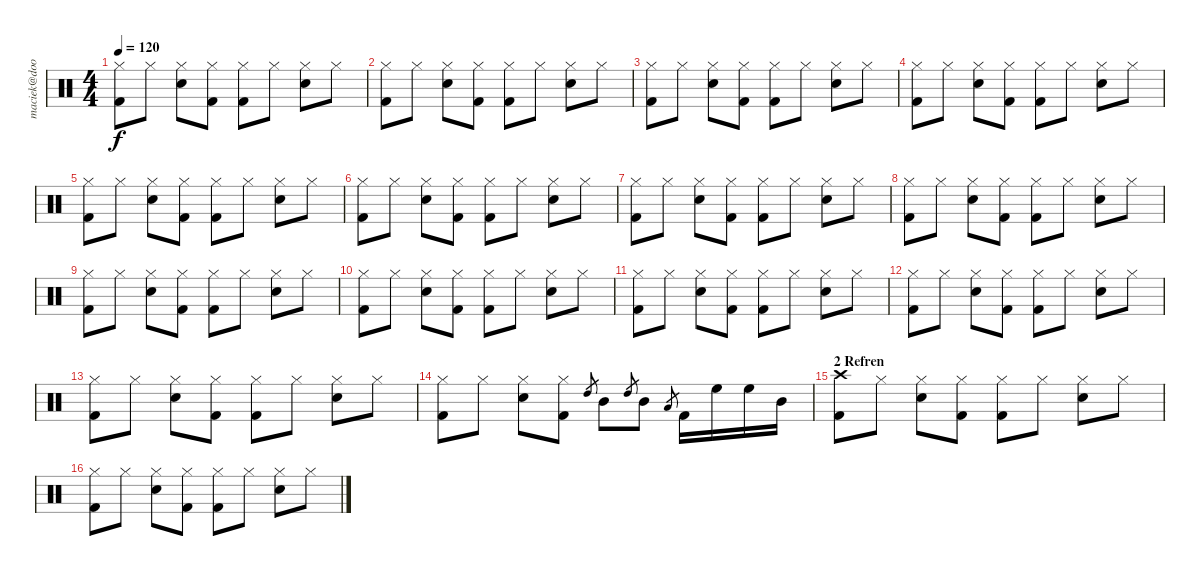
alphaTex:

\track ("maciek@doorpol.com" "maciek@doo") {instrument percussion}
\staff {score}
\articulation defaults
\ts (4 4)
\tempo 120
\clef neutral
\ks c
("Hi-Hat (closed)" "Kick (hit) 2").8{dy f} "Hi-Hat (closed)".8 ("Hi-Hat (closed)" "Snare (hit) 2").8 ("Hi-Hat (closed)" "Kick (hit) 2").8 ("Hi-Hat (closed)" "Kick (hit) 2").8 "Hi-Hat (closed)".8 ("Hi-Hat (closed)" "Snare (hit) 2").8 "Hi-Hat (closed)".8 |
("Hi-Hat (closed)" "Kick (hit) 2").8 "Hi-Hat (closed)".8 ("Hi-Hat (closed)" "Snare (hit) 2").8 ("Hi-Hat (closed)" "Kick (hit) 2").8 ("Hi-Hat (closed)" "Kick (hit) 2").8 "Hi-Hat (closed)".8 ("Hi-Hat (closed)" "Snare (hit) 2").8 "Hi-Hat (closed)".8 |
("Hi-Hat (closed)" "Kick (hit) 2").8 "Hi-Hat (closed)".8 ("Hi-Hat (closed)" "Snare (hit) 2").8 ("Hi-Hat (closed)" "Kick (hit) 2").8 ("Hi-Hat (closed)" "Kick (hit) 2").8 "Hi-Hat (closed)".8 ("Hi-Hat (closed)" "Snare (hit) 2").8 "Hi-Hat (closed)".8 |
("Hi-Hat (closed)" "Kick (hit) 2").8 "Hi-Hat (closed)".8 ("Hi-Hat (closed)" "Snare (hit) 2").8 ("Hi-Hat (closed)" "Kick (hit) 2").8 ("Hi-Hat (closed)" "Kick (hit) 2").8 "Hi-Hat (closed)".8 ("Hi-Hat (closed)" "Snare (hit) 2").8 "Hi-Hat (closed)".8 |
("Hi-Hat (closed)" "Kick (hit) 2").8 "Hi-Hat (closed)".8 ("Hi-Hat (closed)" "Snare (hit) 2").8 ("Hi-Hat (closed)" "Kick (hit) 2").8 ("Hi-Hat (closed)" "Kick (hit) 2").8 "Hi-Hat (closed)".8 ("Hi-Hat (closed)" "Snare (hit) 2").8 "Hi-Hat (closed)".8 |
("Hi-Hat (closed)" "Kick (hit) 2").8 "Hi-Hat (closed)".8 ("Hi-Hat (closed)" "Snare (hit) 2").8 ("Hi-Hat (closed)" "Kick (hit) 2").8 ("Hi-Hat (closed)" "Kick (hit) 2").8 "Hi-Hat (closed)".8 ("Hi-Hat (closed)" "Snare (hit) 2").8 "Hi-Hat (closed)".8 |
("Hi-Hat (closed)" "Kick (hit) 2").8 "Hi-Hat (closed)".8 ("Hi-Hat (closed)" "Snare (hit) 2").8 ("Hi-Hat (closed)" "Kick (hit) 2").8 ("Hi-Hat (closed)" "Kick (hit) 2").8 "Hi-Hat (closed)".8 ("Hi-Hat (closed)" "Snare (hit) 2").8 "Hi-Hat (closed)".8 |
("Hi-Hat (closed)" "Kick (hit) 2").8 "Hi-Hat (closed)".8 ("Hi-Hat (closed)" "Snare (hit) 2").8 ("Hi-Hat (closed)" "Kick (hit) 2").8 ("Hi-Hat (closed)" "Kick (hit) 2").8 "Hi-Hat (closed)".8 ("Hi-Hat (closed)" "Snare (hit) 2").8 "Hi-Hat (closed)".8 |
("Hi-Hat (closed)" "Kick (hit) 2").8 "Hi-Hat (closed)".8 ("Hi-Hat (closed)" "Snare (hit) 2").8 ("Hi-Hat (closed)" "Kick (hit) 2").8 ("Hi-Hat (closed)" "Kick (hit) 2").8 "Hi-Hat (closed)".8 ("Hi-Hat (closed)" "Snare (hit) 2").8 "Hi-Hat (closed)".8 |
("Hi-Hat (closed)" "Kick (hit) 2").8 "Hi-Hat (closed)".8 ("Hi-Hat (closed)" "Snare (hit) 2").8 ("Hi-Hat (closed)" "Kick (hit) 2").8 ("Hi-Hat (closed)" "Kick (hit) 2").8 "Hi-Hat (closed)".8 ("Hi-Hat (closed)" "Snare (hit) 2").8 "Hi-Hat (closed)".8 |
("Hi-Hat (closed)" "Kick (hit) 2").8 "Hi-Hat (closed)".8 ("Hi-Hat (closed)" "Snare (hit) 2").8 ("Hi-Hat (closed)" "Kick (hit) 2").8 ("Hi-Hat (closed)" "Kick (hit) 2").8 "Hi-Hat (closed)".8 ("Hi-Hat (closed)" "Snare (hit) 2").8 "Hi-Hat (closed)".8 |
("Hi-Hat (closed)" "Kick (hit) 2").8 "Hi-Hat (closed)".8 ("Hi-Hat (closed)" "Snare (hit) 2").8 ("Hi-Hat (closed)" "Kick (hit) 2").8 ("Hi-Hat (closed)" "Kick (hit) 2").8 "Hi-Hat (closed)".8 ("Hi-Hat (closed)" "Snare (hit) 2").8 "Hi-Hat (closed)".8 |
("Hi-Hat (closed)" "Kick (hit) 2").8 "Hi-Hat (closed)".8 ("Hi-Hat (closed)" "Snare (hit) 2").8 ("Hi-Hat (closed)" "Kick (hit) 2").8 ("Hi-Hat (closed)" "Kick (hit) 2").8 "Hi-Hat (closed)".8 ("Hi-Hat (closed)" "Snare (hit) 2").8 "Hi-Hat (closed)".8 |
("Hi-Hat (closed)" "Kick (hit) 2").8 "Hi-Hat (closed)".8 ("Hi-Hat (closed)" "Snare (hit) 2").8 ("Hi-Hat (closed)" "Kick (hit) 2").8 "High Tom (hit)".8{gr} "Mid Tom (hit)".8 "High Tom (hit)".8{gr} "Mid Tom (hit)".8 "Low Tom (hit)".8{gr} "Kick (hit) 2".16 "High Floor Tom (hit)".16 "High Floor Tom (hit)".16 "Mid Tom (hit)".16 |
\section ("" "2 Refren")
("Crash high (hit)" "Kick (hit) 2").8 "Hi-Hat (closed)".8 ("Hi-Hat (closed)" "Snare (hit) 2").8 ("Hi-Hat (closed)" "Kick (hit) 2").8 ("Hi-Hat (closed)" "Kick (hit) 2").8 "Hi-Hat (closed)".8 ("Hi-Hat (closed)" "Snare (hit) 2").8 "Hi-Hat (closed)".8 |
("Hi-Hat (closed)" "Kick (hit) 2").8 "Hi-Hat (closed)".8 ("Hi-Hat (closed)" "Snare (hit) 2").8 ("Hi-Hat (closed)" "Kick (hit) 2").8 ("Hi-Hat (closed)" "Kick (hit) 2").8 "Hi-Hat (closed)".8 ("Hi-Hat (closed)" "Snare (hit) 2").8 "Hi-Hat (closed)".8
